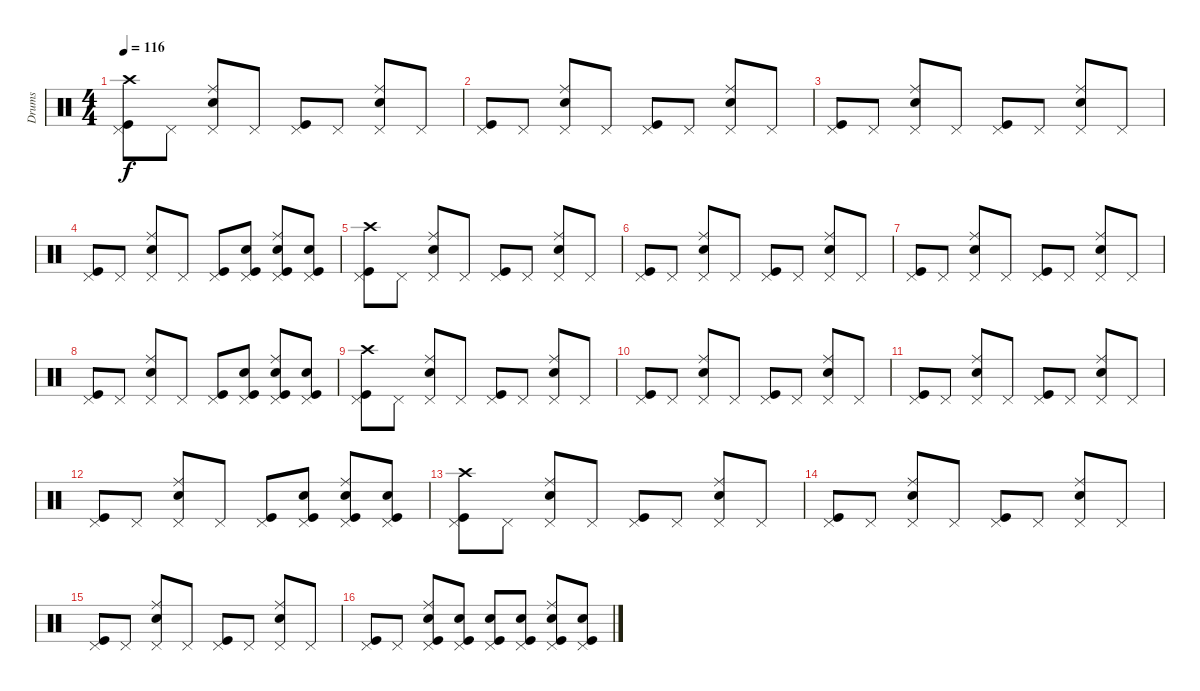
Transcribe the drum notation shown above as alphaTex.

\track ("Drums" "Drums") {instrument percussion}
\staff {score}
\articulation defaults
\ts (4 4)
\tempo 116
\clef neutral
\ks c
("Crash high (hit)" "Pedal Hi-Hat (hit)" "Kick (hit)").8{dy f} "Pedal Hi-Hat (hit)".8 ("Ride (middle)" "Electric Snare (hit)" "Pedal Hi-Hat (hit)").8 "Pedal Hi-Hat (hit)".8 ("Pedal Hi-Hat (hit)" "Kick (hit)").8 "Pedal Hi-Hat (hit)".8 ("Ride (middle)" "Electric Snare (hit)" "Pedal Hi-Hat (hit)").8 "Pedal Hi-Hat (hit)".8 |
("Pedal Hi-Hat (hit)" "Kick (hit)").8 "Pedal Hi-Hat (hit)".8 ("Ride (middle)" "Electric Snare (hit)" "Pedal Hi-Hat (hit)").8 "Pedal Hi-Hat (hit)".8 ("Pedal Hi-Hat (hit)" "Kick (hit)").8 "Pedal Hi-Hat (hit)".8 ("Ride (middle)" "Electric Snare (hit)" "Pedal Hi-Hat (hit)").8 "Pedal Hi-Hat (hit)".8 |
("Pedal Hi-Hat (hit)" "Kick (hit)").8 "Pedal Hi-Hat (hit)".8 ("Ride (middle)" "Electric Snare (hit)" "Pedal Hi-Hat (hit)").8 "Pedal Hi-Hat (hit)".8 ("Pedal Hi-Hat (hit)" "Kick (hit)").8 "Pedal Hi-Hat (hit)".8 ("Ride (middle)" "Electric Snare (hit)" "Pedal Hi-Hat (hit)").8 "Pedal Hi-Hat (hit)".8 |
("Pedal Hi-Hat (hit)" "Kick (hit)").8 "Pedal Hi-Hat (hit)".8 ("Ride (middle)" "Electric Snare (hit)" "Pedal Hi-Hat (hit)").8 "Pedal Hi-Hat (hit)".8 ("Pedal Hi-Hat (hit)" "Kick (hit)").8 ("Electric Snare (hit)" "Pedal Hi-Hat (hit)" "Kick (hit)").8 ("Ride (middle)" "Electric Snare (hit)" "Pedal Hi-Hat (hit)" "Kick (hit)").8 ("Electric Snare (hit)" "Pedal Hi-Hat (hit)" "Kick (hit)").8 |
("Crash high (hit)" "Pedal Hi-Hat (hit)" "Kick (hit)").8 "Pedal Hi-Hat (hit)".8 ("Ride (middle)" "Electric Snare (hit)" "Pedal Hi-Hat (hit)").8 "Pedal Hi-Hat (hit)".8 ("Pedal Hi-Hat (hit)" "Kick (hit)").8 "Pedal Hi-Hat (hit)".8 ("Ride (middle)" "Electric Snare (hit)" "Pedal Hi-Hat (hit)").8 "Pedal Hi-Hat (hit)".8 |
("Pedal Hi-Hat (hit)" "Kick (hit)").8 "Pedal Hi-Hat (hit)".8 ("Ride (middle)" "Electric Snare (hit)" "Pedal Hi-Hat (hit)").8 "Pedal Hi-Hat (hit)".8 ("Pedal Hi-Hat (hit)" "Kick (hit)").8 "Pedal Hi-Hat (hit)".8 ("Ride (middle)" "Electric Snare (hit)" "Pedal Hi-Hat (hit)").8 "Pedal Hi-Hat (hit)".8 |
("Pedal Hi-Hat (hit)" "Kick (hit)").8 "Pedal Hi-Hat (hit)".8 ("Ride (middle)" "Electric Snare (hit)" "Pedal Hi-Hat (hit)").8 "Pedal Hi-Hat (hit)".8 ("Pedal Hi-Hat (hit)" "Kick (hit)").8 "Pedal Hi-Hat (hit)".8 ("Ride (middle)" "Electric Snare (hit)" "Pedal Hi-Hat (hit)").8 "Pedal Hi-Hat (hit)".8 |
("Pedal Hi-Hat (hit)" "Kick (hit)").8 "Pedal Hi-Hat (hit)".8 ("Ride (middle)" "Electric Snare (hit)" "Pedal Hi-Hat (hit)").8 "Pedal Hi-Hat (hit)".8 ("Pedal Hi-Hat (hit)" "Kick (hit)").8 ("Electric Snare (hit)" "Pedal Hi-Hat (hit)" "Kick (hit)").8 ("Ride (middle)" "Electric Snare (hit)" "Pedal Hi-Hat (hit)" "Kick (hit)").8 ("Electric Snare (hit)" "Pedal Hi-Hat (hit)" "Kick (hit)").8 |
("Crash high (hit)" "Pedal Hi-Hat (hit)" "Kick (hit)").8 "Pedal Hi-Hat (hit)".8 ("Ride (middle)" "Electric Snare (hit)" "Pedal Hi-Hat (hit)").8 "Pedal Hi-Hat (hit)".8 ("Pedal Hi-Hat (hit)" "Kick (hit)").8 "Pedal Hi-Hat (hit)".8 ("Ride (middle)" "Electric Snare (hit)" "Pedal Hi-Hat (hit)").8 "Pedal Hi-Hat (hit)".8 |
("Pedal Hi-Hat (hit)" "Kick (hit)").8 "Pedal Hi-Hat (hit)".8 ("Ride (middle)" "Electric Snare (hit)" "Pedal Hi-Hat (hit)").8 "Pedal Hi-Hat (hit)".8 ("Pedal Hi-Hat (hit)" "Kick (hit)").8 "Pedal Hi-Hat (hit)".8 ("Ride (middle)" "Electric Snare (hit)" "Pedal Hi-Hat (hit)").8 "Pedal Hi-Hat (hit)".8 |
("Pedal Hi-Hat (hit)" "Kick (hit)").8 "Pedal Hi-Hat (hit)".8 ("Ride (middle)" "Electric Snare (hit)" "Pedal Hi-Hat (hit)").8 "Pedal Hi-Hat (hit)".8 ("Pedal Hi-Hat (hit)" "Kick (hit)").8 "Pedal Hi-Hat (hit)".8 ("Ride (middle)" "Electric Snare (hit)" "Pedal Hi-Hat (hit)").8 "Pedal Hi-Hat (hit)".8 |
("Pedal Hi-Hat (hit)" "Kick (hit)").8 "Pedal Hi-Hat (hit)".8 ("Ride (middle)" "Electric Snare (hit)" "Pedal Hi-Hat (hit)").8 "Pedal Hi-Hat (hit)".8 ("Pedal Hi-Hat (hit)" "Kick (hit)").8 ("Electric Snare (hit)" "Pedal Hi-Hat (hit)" "Kick (hit)").8 ("Ride (middle)" "Electric Snare (hit)" "Pedal Hi-Hat (hit)" "Kick (hit)").8 ("Electric Snare (hit)" "Pedal Hi-Hat (hit)" "Kick (hit)").8 |
("Crash high (hit)" "Pedal Hi-Hat (hit)" "Kick (hit)").8 "Pedal Hi-Hat (hit)".8 ("Ride (middle)" "Electric Snare (hit)" "Pedal Hi-Hat (hit)").8 "Pedal Hi-Hat (hit)".8 ("Pedal Hi-Hat (hit)" "Kick (hit)").8 "Pedal Hi-Hat (hit)".8 ("Ride (middle)" "Electric Snare (hit)" "Pedal Hi-Hat (hit)").8 "Pedal Hi-Hat (hit)".8 |
("Pedal Hi-Hat (hit)" "Kick (hit)").8 "Pedal Hi-Hat (hit)".8 ("Ride (middle)" "Electric Snare (hit)" "Pedal Hi-Hat (hit)").8 "Pedal Hi-Hat (hit)".8 ("Pedal Hi-Hat (hit)" "Kick (hit)").8 "Pedal Hi-Hat (hit)".8 ("Ride (middle)" "Electric Snare (hit)" "Pedal Hi-Hat (hit)").8 "Pedal Hi-Hat (hit)".8 |
("Pedal Hi-Hat (hit)" "Kick (hit)").8 "Pedal Hi-Hat (hit)".8 ("Ride (middle)" "Electric Snare (hit)" "Pedal Hi-Hat (hit)").8 "Pedal Hi-Hat (hit)".8 ("Pedal Hi-Hat (hit)" "Kick (hit)").8 "Pedal Hi-Hat (hit)".8 ("Ride (middle)" "Electric Snare (hit)" "Pedal Hi-Hat (hit)").8 "Pedal Hi-Hat (hit)".8 |
("Pedal Hi-Hat (hit)" "Kick (hit)").8 "Pedal Hi-Hat (hit)".8 ("Ride (middle)" "Electric Snare (hit)" "Pedal Hi-Hat (hit)" "Kick (hit)").8 ("Electric Snare (hit)" "Pedal Hi-Hat (hit)" "Kick (hit)").8 ("Electric Snare (hit)" "Pedal Hi-Hat (hit)" "Kick (hit)").8 ("Electric Snare (hit)" "Pedal Hi-Hat (hit)" "Kick (hit)").8 ("Ride (middle)" "Electric Snare (hit)" "Pedal Hi-Hat (hit)" "Kick (hit)").8 ("Electric Snare (hit)" "Pedal Hi-Hat (hit)" "Kick (hit)").8
